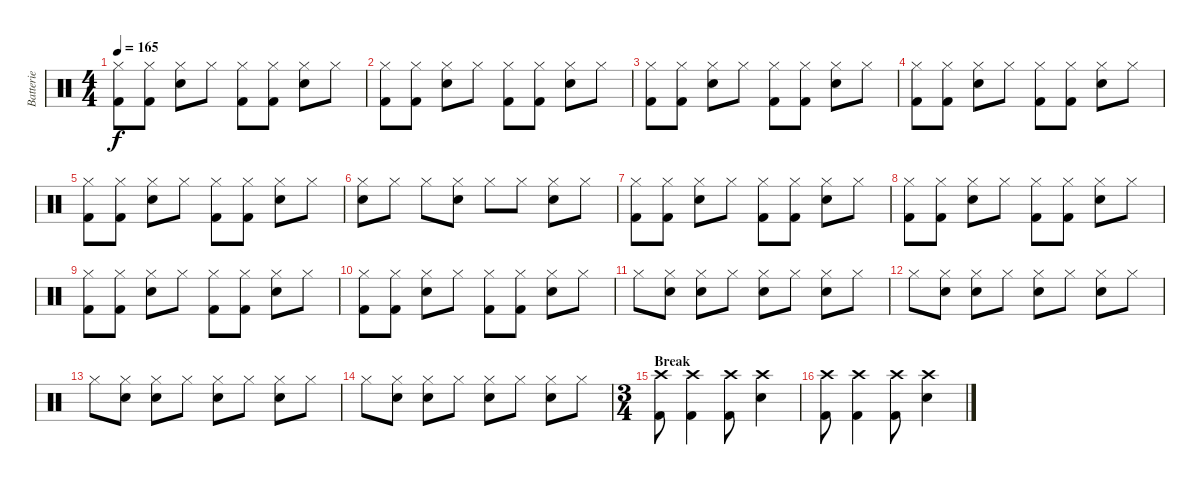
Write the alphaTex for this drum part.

\track ("Batterie" "Batterie") {instrument percussion}
\staff {score}
\articulation defaults
\ts (4 4)
\tempo 165
\clef neutral
\ks c
("Hi-Hat (closed)" "Kick (hit) 2").8{dy f} ("Hi-Hat (closed)" "Kick (hit) 2").8 ("Hi-Hat (closed)" "Electric Snare (hit)").8 "Hi-Hat (closed)".8 ("Hi-Hat (closed)" "Kick (hit) 2").8 ("Hi-Hat (closed)" "Kick (hit) 2").8 ("Hi-Hat (closed)" "Electric Snare (hit)").8 "Hi-Hat (closed)".8 |
("Hi-Hat (closed)" "Kick (hit) 2").8 ("Hi-Hat (closed)" "Kick (hit) 2").8 ("Hi-Hat (closed)" "Electric Snare (hit)").8 "Hi-Hat (closed)".8 ("Hi-Hat (closed)" "Kick (hit) 2").8 ("Hi-Hat (closed)" "Kick (hit) 2").8 ("Hi-Hat (closed)" "Electric Snare (hit)").8 "Hi-Hat (closed)".8 |
("Hi-Hat (closed)" "Kick (hit) 2").8 ("Hi-Hat (closed)" "Kick (hit) 2").8 ("Hi-Hat (closed)" "Electric Snare (hit)").8 "Hi-Hat (closed)".8 ("Hi-Hat (closed)" "Kick (hit) 2").8 ("Hi-Hat (closed)" "Kick (hit) 2").8 ("Hi-Hat (closed)" "Electric Snare (hit)").8 "Hi-Hat (closed)".8 |
("Hi-Hat (closed)" "Kick (hit) 2").8 ("Hi-Hat (closed)" "Kick (hit) 2").8 ("Hi-Hat (closed)" "Electric Snare (hit)").8 "Hi-Hat (closed)".8 ("Hi-Hat (closed)" "Kick (hit) 2").8 ("Hi-Hat (closed)" "Kick (hit) 2").8 ("Hi-Hat (closed)" "Electric Snare (hit)").8 "Hi-Hat (closed)".8 |
("Hi-Hat (closed)" "Kick (hit) 2").8 ("Hi-Hat (closed)" "Kick (hit) 2").8 ("Hi-Hat (closed)" "Electric Snare (hit)").8 "Hi-Hat (closed)".8 ("Hi-Hat (closed)" "Kick (hit) 2").8 ("Hi-Hat (closed)" "Kick (hit) 2").8 ("Hi-Hat (closed)" "Electric Snare (hit)").8 "Hi-Hat (closed)".8 |
("Hi-Hat (closed)" "Electric Snare (hit)").8 "Hi-Hat (closed)".8 "Hi-Hat (closed)".8 ("Hi-Hat (closed)" "Electric Snare (hit)").8 "Hi-Hat (closed)".8 "Hi-Hat (closed)".8 ("Hi-Hat (closed)" "Electric Snare (hit)").8 "Hi-Hat (closed)".8 |
("Hi-Hat (closed)" "Kick (hit) 2").8 ("Hi-Hat (closed)" "Kick (hit) 2").8 ("Hi-Hat (closed)" "Electric Snare (hit)").8 "Hi-Hat (closed)".8 ("Hi-Hat (closed)" "Kick (hit) 2").8 ("Hi-Hat (closed)" "Kick (hit) 2").8 ("Hi-Hat (closed)" "Electric Snare (hit)").8 "Hi-Hat (closed)".8 |
("Hi-Hat (closed)" "Kick (hit) 2").8 ("Hi-Hat (closed)" "Kick (hit) 2").8 ("Hi-Hat (closed)" "Electric Snare (hit)").8 "Hi-Hat (closed)".8 ("Hi-Hat (closed)" "Kick (hit) 2").8 ("Hi-Hat (closed)" "Kick (hit) 2").8 ("Hi-Hat (closed)" "Electric Snare (hit)").8 "Hi-Hat (closed)".8 |
("Hi-Hat (closed)" "Kick (hit) 2").8 ("Hi-Hat (closed)" "Kick (hit) 2").8 ("Hi-Hat (closed)" "Electric Snare (hit)").8 "Hi-Hat (closed)".8 ("Hi-Hat (closed)" "Kick (hit) 2").8 ("Hi-Hat (closed)" "Kick (hit) 2").8 ("Hi-Hat (closed)" "Electric Snare (hit)").8 "Hi-Hat (closed)".8 |
("Hi-Hat (closed)" "Kick (hit) 2").8 ("Hi-Hat (closed)" "Kick (hit) 2").8 ("Hi-Hat (closed)" "Electric Snare (hit)").8 "Hi-Hat (closed)".8 ("Hi-Hat (closed)" "Kick (hit) 2").8 ("Hi-Hat (closed)" "Kick (hit) 2").8 ("Hi-Hat (closed)" "Electric Snare (hit)").8 "Hi-Hat (closed)".8 |
"Hi-Hat (closed)".8 ("Hi-Hat (closed)" "Electric Snare (hit)").8 ("Hi-Hat (closed)" "Electric Snare (hit)").8 "Hi-Hat (closed)".8 ("Hi-Hat (closed)" "Electric Snare (hit)").8 "Hi-Hat (closed)".8 ("Hi-Hat (closed)" "Electric Snare (hit)").8 "Hi-Hat (closed)".8 |
"Hi-Hat (closed)".8 ("Hi-Hat (closed)" "Electric Snare (hit)").8 ("Hi-Hat (closed)" "Electric Snare (hit)").8 "Hi-Hat (closed)".8 ("Hi-Hat (closed)" "Electric Snare (hit)").8 "Hi-Hat (closed)".8 ("Hi-Hat (closed)" "Electric Snare (hit)").8 "Hi-Hat (closed)".8 |
"Hi-Hat (closed)".8 ("Hi-Hat (closed)" "Electric Snare (hit)").8 ("Hi-Hat (closed)" "Electric Snare (hit)").8 "Hi-Hat (closed)".8 ("Hi-Hat (closed)" "Electric Snare (hit)").8 "Hi-Hat (closed)".8 ("Hi-Hat (closed)" "Electric Snare (hit)").8 "Hi-Hat (closed)".8 |
"Hi-Hat (closed)".8 ("Hi-Hat (closed)" "Electric Snare (hit)").8 ("Hi-Hat (closed)" "Electric Snare (hit)").8 "Hi-Hat (closed)".8 ("Hi-Hat (closed)" "Electric Snare (hit)").8 "Hi-Hat (closed)".8 ("Hi-Hat (closed)" "Electric Snare (hit)").8 "Hi-Hat (closed)".8 |
\ts (3 4)
\section ("" "Break")
("Crash high (hit)" "Kick (hit) 2").8 ("Crash high (hit)" "Kick (hit) 2").4 ("Crash high (hit)" "Kick (hit) 2").8 ("Crash high (hit)" "Snare (hit) 2").4 |
("Crash high (hit)" "Kick (hit) 2").8 ("Crash high (hit)" "Kick (hit) 2").4 ("Crash high (hit)" "Kick (hit) 2").8 ("Crash high (hit)" "Snare (hit) 2").4
